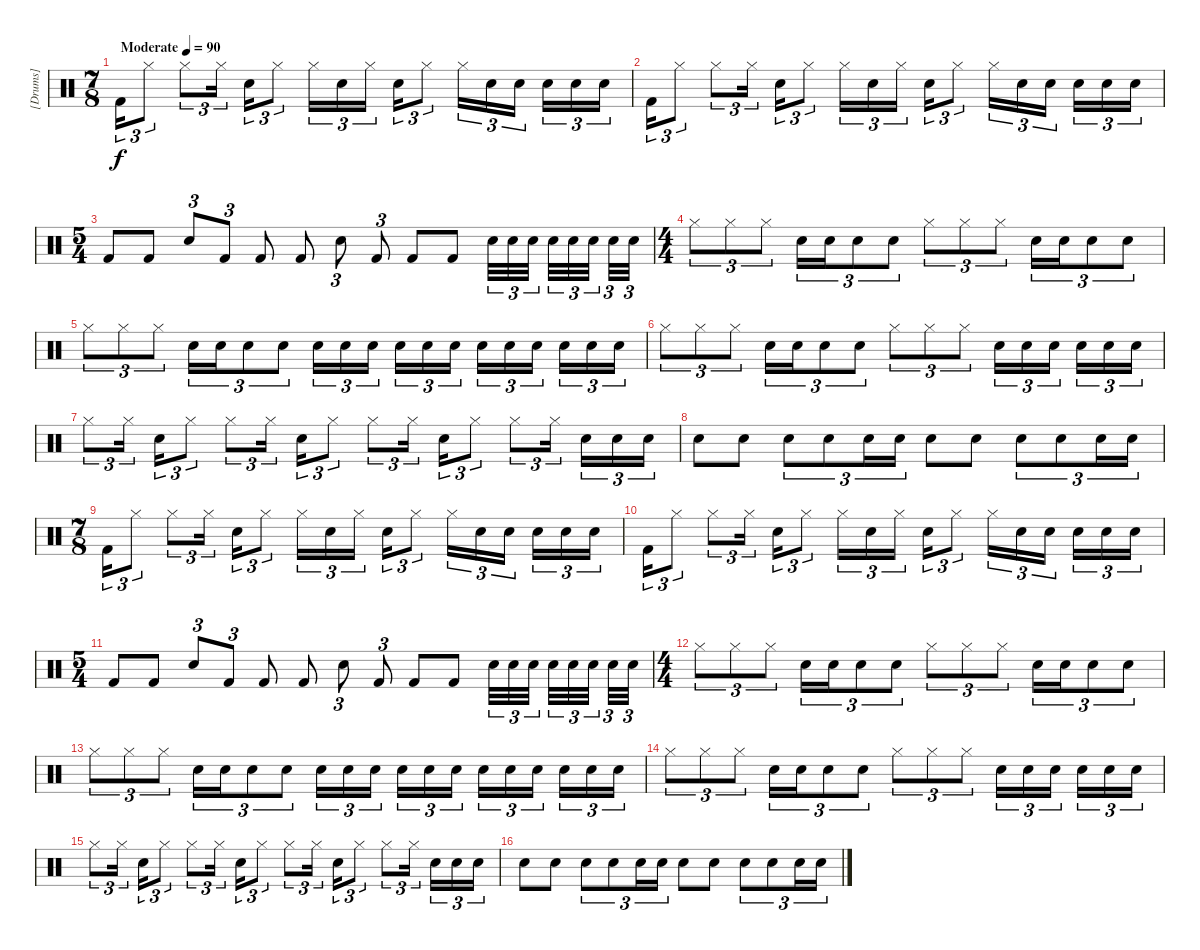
\track ("[Drums]" "[Drums]") {instrument percussion}
\staff {score}
\articulation defaults
\ts (7 8)
\tempo (90 "Moderate")
\clef neutral
\ks c "Kick (hit) 2".16{tu (3 2) dy f} "Hi-Hat (closed)".8{tu (3 2)} "Hi-Hat (closed)".8{tu (3 2)} "Hi-Hat (closed)".16{tu (3 2)} "Snare (hit) 2".16{tu (3 2)} "Hi-Hat (closed)".8{tu (3 2)} "Hi-Hat (closed)".16{tu (3 2)} "Snare (hit) 2".16{tu (3 2)} "Hi-Hat (closed)".16{tu (3 2)} "Snare (hit) 2".16{tu (3 2)} "Hi-Hat (closed)".8{tu (3 2)} "Hi-Hat (closed)".16{tu (3 2)} "Snare (hit) 2".16{tu (3 2)} "Snare (hit) 2".16{tu (3 2)} "Snare (hit) 2".16{tu (3 2)} "Snare (hit) 2".16{tu (3 2)} "Snare (hit) 2".16{tu (3 2)}
|
"Kick (hit) 2".16{tu (3 2)} "Hi-Hat (closed)".8{tu (3 2)} "Hi-Hat (closed)".8{tu (3 2)} "Hi-Hat (closed)".16{tu (3 2)} "Snare (hit) 2".16{tu (3 2)} "Hi-Hat (closed)".8{tu (3 2)} "Hi-Hat (closed)".16{tu (3 2)} "Snare (hit) 2".16{tu (3 2)} "Hi-Hat (closed)".16{tu (3 2)} "Snare (hit) 2".16{tu (3 2)} "Hi-Hat (closed)".8{tu (3 2)} "Hi-Hat (closed)".16{tu (3 2)} "Snare (hit) 2".16{tu (3 2)} "Snare (hit) 2".16{tu (3 2)} "Snare (hit) 2".16{tu (3 2)} "Snare (hit) 2".16{tu (3 2)} "Snare (hit) 2".16{tu (3 2)} |
\ts (5 4)
"Kick (hit) 2".8 "Kick (hit) 2".8 "Electric Snare (hit)".8{tu (3 2)} "Kick (hit) 2".8{tu (3 2)} "Kick (hit) 2".8 "Kick (hit) 2".8 "Electric Snare (hit)".8{tu (3 2)} "Kick (hit) 2".8{tu (3 2)} "Kick (hit) 2".8 "Kick (hit) 2".8 "Electric Snare (hit)".32{tu (3 2)} "Electric Snare (hit)".32{tu (3 2)} "Electric Snare (hit)".32{tu (3 2) beam splitsecondary} "Electric Snare (hit)".32{tu (3 2)} "Electric Snare (hit)".32{tu (3 2)} "Electric Snare (hit)".32{tu (3 2) beam splitsecondary} "Electric Snare (hit)".32{tu (3 2)} "Electric Snare (hit)".32{tu (3 2)} |
\ts (4 4)
"Hi-Hat (closed)".8{tu (3 2)} "Hi-Hat (closed)".8{tu (3 2)} "Hi-Hat (closed)".8{tu (3 2)} "Snare (hit) 2".16{tu (3 2)} "Snare (hit) 2".16{tu (3 2)} "Snare (hit) 2".8{tu (3 2)} "Snare (hit) 2".8{tu (3 2)} "Hi-Hat (closed)".8{tu (3 2)} "Hi-Hat (closed)".8{tu (3 2)} "Hi-Hat (closed)".8{tu (3 2)} "Snare (hit) 2".16{tu (3 2)} "Snare (hit) 2".16{tu (3 2)} "Snare (hit) 2".8{tu (3 2)} "Snare (hit) 2".8{tu (3 2)} |
"Hi-Hat (closed)".8{tu (3 2)} "Hi-Hat (closed)".8{tu (3 2)} "Hi-Hat (closed)".8{tu (3 2)} "Snare (hit) 2".16{tu (3 2)} "Snare (hit) 2".16{tu (3 2)} "Snare (hit) 2".8{tu (3 2)} "Snare (hit) 2".8{tu (3 2)} "Snare (hit) 2".16{tu (3 2)} "Snare (hit) 2".16{tu (3 2)} "Snare (hit) 2".16{tu (3 2) beam splitsecondary} "Snare (hit) 2".16{tu (3 2)} "Snare (hit) 2".16{tu (3 2)} "Snare (hit) 2".16{tu (3 2)} "Snare (hit) 2".16{tu (3 2)} "Snare (hit) 2".16{tu (3 2)} "Snare (hit) 2".16{tu (3 2) beam splitsecondary} "Snare (hit) 2".16{tu (3 2)} "Snare (hit) 2".16{tu (3 2)} "Snare (hit) 2".16{tu (3 2)} |
"Hi-Hat (closed)".8{tu (3 2)} "Hi-Hat (closed)".8{tu (3 2)} "Hi-Hat (closed)".8{tu (3 2)} "Snare (hit) 2".16{tu (3 2)} "Snare (hit) 2".16{tu (3 2)} "Snare (hit) 2".8{tu (3 2)} "Snare (hit) 2".8{tu (3 2)} "Hi-Hat (closed)".8{tu (3 2)} "Hi-Hat (closed)".8{tu (3 2)} "Hi-Hat (closed)".8{tu (3 2)} "Snare (hit) 2".16{tu (3 2)} "Snare (hit) 2".16{tu (3 2)} "Snare (hit) 2".16{tu (3 2) beam splitsecondary} "Snare (hit) 2".16{tu (3 2)} "Snare (hit) 2".16{tu (3 2)} "Snare (hit) 2".16{tu (3 2)} |
"Hi-Hat (closed)".8{tu (3 2)} "Hi-Hat (closed)".16{tu (3 2) beam splitsecondary} "Snare (hit) 2".16{tu (3 2)} "Hi-Hat (closed)".8{tu (3 2)} "Hi-Hat (closed)".8{tu (3 2)} "Hi-Hat (closed)".16{tu (3 2) beam splitsecondary} "Snare (hit) 2".16{tu (3 2)} "Hi-Hat (closed)".8{tu (3 2)} "Hi-Hat (closed)".8{tu (3 2)} "Hi-Hat (closed)".16{tu (3 2) beam splitsecondary} "Snare (hit) 2".16{tu (3 2)} "Hi-Hat (closed)".8{tu (3 2)} "Hi-Hat (closed)".8{tu (3 2)} "Hi-Hat (closed)".16{tu (3 2) beam splitsecondary} "Snare (hit) 2".16{tu (3 2)} "Snare (hit) 2".16{tu (3 2)} "Snare (hit) 2".16{tu (3 2)} |
"Snare (hit) 2".8 "Snare (hit) 2".8 "Snare (hit) 2".8{tu (3 2)} "Snare (hit) 2".8{tu (3 2)} "Snare (hit) 2".16{tu (3 2)} "Snare (hit) 2".16{tu (3 2)} "Snare (hit) 2".8 "Snare (hit) 2".8 "Snare (hit) 2".8{tu (3 2)} "Snare (hit) 2".8{tu (3 2)} "Snare (hit) 2".16{tu (3 2)} "Snare (hit) 2".16{tu (3 2)} |
\ts (7 8)
"Kick (hit) 2".16{tu (3 2)} "Hi-Hat (closed)".8{tu (3 2)} "Hi-Hat (closed)".8{tu (3 2)} "Hi-Hat (closed)".16{tu (3 2)} "Snare (hit) 2".16{tu (3 2)} "Hi-Hat (closed)".8{tu (3 2)} "Hi-Hat (closed)".16{tu (3 2)} "Snare (hit) 2".16{tu (3 2)} "Hi-Hat (closed)".16{tu (3 2)} "Snare (hit) 2".16{tu (3 2)} "Hi-Hat (closed)".8{tu (3 2)} "Hi-Hat (closed)".16{tu (3 2)} "Snare (hit) 2".16{tu (3 2)} "Snare (hit) 2".16{tu (3 2)} "Snare (hit) 2".16{tu (3 2)} "Snare (hit) 2".16{tu (3 2)} "Snare (hit) 2".16{tu (3 2)} |
"Kick (hit) 2".16{tu (3 2)} "Hi-Hat (closed)".8{tu (3 2)} "Hi-Hat (closed)".8{tu (3 2)} "Hi-Hat (closed)".16{tu (3 2)} "Snare (hit) 2".16{tu (3 2)} "Hi-Hat (closed)".8{tu (3 2)} "Hi-Hat (closed)".16{tu (3 2)} "Snare (hit) 2".16{tu (3 2)} "Hi-Hat (closed)".16{tu (3 2)} "Snare (hit) 2".16{tu (3 2)} "Hi-Hat (closed)".8{tu (3 2)} "Hi-Hat (closed)".16{tu (3 2)} "Snare (hit) 2".16{tu (3 2)} "Snare (hit) 2".16{tu (3 2)} "Snare (hit) 2".16{tu (3 2)} "Snare (hit) 2".16{tu (3 2)} "Snare (hit) 2".16{tu (3 2)} |
\ts (5 4)
"Kick (hit) 2".8 "Kick (hit) 2".8 "Electric Snare (hit)".8{tu (3 2)} "Kick (hit) 2".8{tu (3 2)} "Kick (hit) 2".8 "Kick (hit) 2".8 "Electric Snare (hit)".8{tu (3 2)} "Kick (hit) 2".8{tu (3 2)} "Kick (hit) 2".8 "Kick (hit) 2".8 "Electric Snare (hit)".32{tu (3 2)} "Electric Snare (hit)".32{tu (3 2)} "Electric Snare (hit)".32{tu (3 2) beam splitsecondary} "Electric Snare (hit)".32{tu (3 2)} "Electric Snare (hit)".32{tu (3 2)} "Electric Snare (hit)".32{tu (3 2) beam splitsecondary} "Electric Snare (hit)".32{tu (3 2)} "Electric Snare (hit)".32{tu (3 2)} |
\ts (4 4)
"Hi-Hat (closed)".8{tu (3 2)} "Hi-Hat (closed)".8{tu (3 2)} "Hi-Hat (closed)".8{tu (3 2)} "Snare (hit) 2".16{tu (3 2)} "Snare (hit) 2".16{tu (3 2)} "Snare (hit) 2".8{tu (3 2)} "Snare (hit) 2".8{tu (3 2)} "Hi-Hat (closed)".8{tu (3 2)} "Hi-Hat (closed)".8{tu (3 2)} "Hi-Hat (closed)".8{tu (3 2)} "Snare (hit) 2".16{tu (3 2)} "Snare (hit) 2".16{tu (3 2)} "Snare (hit) 2".8{tu (3 2)} "Snare (hit) 2".8{tu (3 2)} |
"Hi-Hat (closed)".8{tu (3 2)} "Hi-Hat (closed)".8{tu (3 2)} "Hi-Hat (closed)".8{tu (3 2)} "Snare (hit) 2".16{tu (3 2)} "Snare (hit) 2".16{tu (3 2)} "Snare (hit) 2".8{tu (3 2)} "Snare (hit) 2".8{tu (3 2)} "Snare (hit) 2".16{tu (3 2)} "Snare (hit) 2".16{tu (3 2)} "Snare (hit) 2".16{tu (3 2) beam splitsecondary} "Snare (hit) 2".16{tu (3 2)} "Snare (hit) 2".16{tu (3 2)} "Snare (hit) 2".16{tu (3 2)} "Snare (hit) 2".16{tu (3 2)} "Snare (hit) 2".16{tu (3 2)} "Snare (hit) 2".16{tu (3 2) beam splitsecondary} "Snare (hit) 2".16{tu (3 2)} "Snare (hit) 2".16{tu (3 2)} "Snare (hit) 2".16{tu (3 2)} |
"Hi-Hat (closed)".8{tu (3 2)} "Hi-Hat (closed)".8{tu (3 2)} "Hi-Hat (closed)".8{tu (3 2)} "Snare (hit) 2".16{tu (3 2)} "Snare (hit) 2".16{tu (3 2)} "Snare (hit) 2".8{tu (3 2)} "Snare (hit) 2".8{tu (3 2)} "Hi-Hat (closed)".8{tu (3 2)} "Hi-Hat (closed)".8{tu (3 2)} "Hi-Hat (closed)".8{tu (3 2)} "Snare (hit) 2".16{tu (3 2)} "Snare (hit) 2".16{tu (3 2)} "Snare (hit) 2".16{tu (3 2) beam splitsecondary} "Snare (hit) 2".16{tu (3 2)} "Snare (hit) 2".16{tu (3 2)} "Snare (hit) 2".16{tu (3 2)} |
"Hi-Hat (closed)".8{tu (3 2)} "Hi-Hat (closed)".16{tu (3 2) beam splitsecondary} "Snare (hit) 2".16{tu (3 2)} "Hi-Hat (closed)".8{tu (3 2)} "Hi-Hat (closed)".8{tu (3 2)} "Hi-Hat (closed)".16{tu (3 2) beam splitsecondary} "Snare (hit) 2".16{tu (3 2)} "Hi-Hat (closed)".8{tu (3 2)} "Hi-Hat (closed)".8{tu (3 2)} "Hi-Hat (closed)".16{tu (3 2) beam splitsecondary} "Snare (hit) 2".16{tu (3 2)} "Hi-Hat (closed)".8{tu (3 2)} "Hi-Hat (closed)".8{tu (3 2)} "Hi-Hat (closed)".16{tu (3 2) beam splitsecondary} "Snare (hit) 2".16{tu (3 2)} "Snare (hit) 2".16{tu (3 2)} "Snare (hit) 2".16{tu (3 2)} |
"Snare (hit) 2".8 "Snare (hit) 2".8 "Snare (hit) 2".8{tu (3 2)} "Snare (hit) 2".8{tu (3 2)} "Snare (hit) 2".16{tu (3 2)} "Snare (hit) 2".16{tu (3 2)} "Snare (hit) 2".8 "Snare (hit) 2".8 "Snare (hit) 2".8{tu (3 2)} "Snare (hit) 2".8{tu (3 2)} "Snare (hit) 2".16{tu (3 2)} "Snare (hit) 2".16{tu (3 2)}
